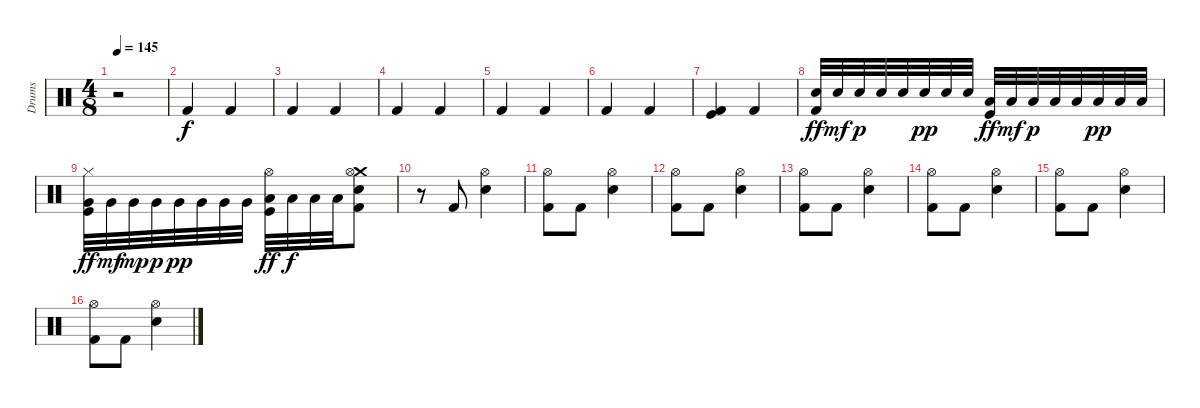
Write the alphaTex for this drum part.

\track ("Drums" "Drums") {instrument percussion}
\staff {score}
\articulation defaults
\ts (4 8)
\tempo 145
\clef neutral
\ks c
r.2{dy mp} |
"Kick (hit) 2".4{dy f} "Kick (hit) 2".4 |
"Kick (hit) 2".4 "Kick (hit) 2".4 |
"Kick (hit) 2".4 "Kick (hit) 2".4 |
"Kick (hit) 2".4 "Kick (hit) 2".4 |
"Kick (hit) 2".4 "Kick (hit) 2".4 |
("Kick (hit)" "Kick (hit) 2").4 "Kick (hit) 2".4 |
("Snare (hit) 2" "Kick (hit) 2").32{dy ff} "Snare (hit) 2".32{dy mf} "Snare (hit) 2".32{dy p} "Snare (hit) 2".32 "Snare (hit) 2".32 "Snare (hit) 2".32{dy pp} "Snare (hit) 2".32 "Snare (hit) 2".32 ("Low Tom (hit)" "Kick (hit)").32{dy ff} "Low Tom (hit)".32{dy mf} "Low Tom (hit)".32{dy p} "Low Tom (hit)".32 "Low Tom (hit)".32 "Low Tom (hit)".32{dy pp} "Low Tom (hit)".32 "Low Tom (hit)".32 |
("Very Low Tom (hit)" "Hi-Hat (closed)" "Kick (hit)").32{dy ff} "Very Low Tom (hit)".32{dy mf} "Very Low Tom (hit)".32{dy mp} "Very Low Tom (hit)".32{dy p} "Very Low Tom (hit)".32{dy pp} "Very Low Tom (hit)".32 "Very Low Tom (hit)".32 "Very Low Tom (hit)".32 ("Low Floor Tom (hit)" "Hi-Hat (open)" "Kick (hit)").32{dy ff} "Low Floor Tom (hit)".32{dy f} "Low Floor Tom (hit)".32 "Low Floor Tom (hit)".32 ("Crash medium (hit)" "Hi-Hat (open)" "Snare (hit) 2" "Kick (hit) 2").8 |
r.8 "Kick (hit) 2".8 ("Hi-Hat (open)" "Snare (hit) 2").4 |
("Hi-Hat (open)" "Kick (hit) 2").8 "Kick (hit) 2".8 ("Hi-Hat (open)" "Snare (hit) 2").4 |
("Hi-Hat (open)" "Kick (hit) 2").8 "Kick (hit) 2".8 ("Hi-Hat (open)" "Snare (hit) 2").4 |
("Hi-Hat (open)" "Kick (hit) 2").8 "Kick (hit) 2".8 ("Hi-Hat (open)" "Snare (hit) 2").4 |
("Hi-Hat (open)" "Kick (hit) 2").8 "Kick (hit) 2".8 ("Hi-Hat (open)" "Snare (hit) 2").4 |
("Hi-Hat (open)" "Kick (hit) 2").8 "Kick (hit) 2".8 ("Hi-Hat (open)" "Snare (hit) 2").4 |
("Hi-Hat (open)" "Kick (hit) 2").8 "Kick (hit) 2".8 ("Hi-Hat (open)" "Snare (hit) 2").4
